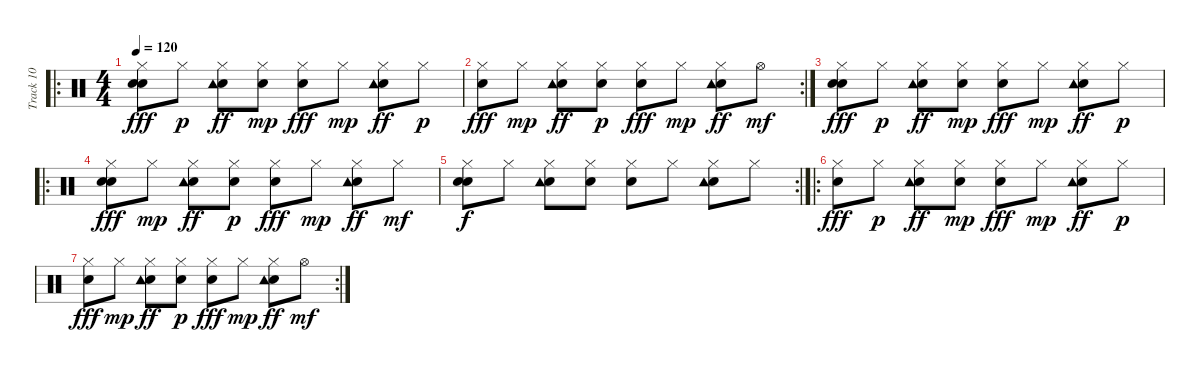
\track ("Track 10" "Track 10") {instrument percussion}
\staff {score}
\articulation defaults
\ro
\ts (4 4)
\tempo 120
\clef neutral
\ks c
("Snare (hit)" "Hi-Hat (closed)" "Snare (hit)").8{dy fff} "Hi-Hat (closed)".8{dy p} ("Snare (hit) 2" "Hi-Hat (closed)" "Tambourine (hit)").8{dy ff} ("Snare (hit)" "Hi-Hat (closed)").8{dy mp} ("Snare (hit)" "Hi-Hat (closed)").8{dy fff} "Hi-Hat (closed)".8{dy mp} ("Snare (hit) 2" "Hi-Hat (closed)" "Tambourine (hit)").8{dy ff} "Hi-Hat (closed)".8{dy p} |
\rc 2
("Snare (hit)" "Hi-Hat (closed)").8{dy fff} "Hi-Hat (closed)".8{dy mp} ("Snare (hit) 2" "Hi-Hat (closed)" "Tambourine (hit)").8{dy ff} ("Snare (hit)" "Hi-Hat (closed)").8{dy p} ("Snare (hit)" "Hi-Hat (closed)").8{dy fff} "Hi-Hat (closed)".8{dy mp} ("Hi-Hat (closed)" "Snare (hit) 2" "Tambourine (hit)").8{dy ff} "Hi-Hat (open)".8{dy mf} |
("Snare (hit)" "Hi-Hat (closed)" "Snare (hit)").8{dy fff} "Hi-Hat (closed)".8{dy p} ("Snare (hit) 2" "Hi-Hat (closed)" "Tambourine (hit)").8{dy ff} ("Snare (hit)" "Hi-Hat (closed)").8{dy mp} ("Snare (hit)" "Hi-Hat (closed)").8{dy fff} "Hi-Hat (closed)".8{dy mp} ("Snare (hit) 2" "Hi-Hat (closed)" "Tambourine (hit)").8{dy ff} "Hi-Hat (closed)".8{dy p} |
\ro
("Snare (hit)" "Hi-Hat (closed)" "Snare (hit)").8{dy fff} "Hi-Hat (closed)".8{dy mp} ("Snare (hit) 2" "Hi-Hat (closed)" "Tambourine (hit)").8{dy ff} ("Snare (hit)" "Hi-Hat (closed)").8{dy p} ("Snare (hit)" "Hi-Hat (closed)").8{dy fff} "Hi-Hat (closed)".8{dy mp} ("Snare (hit) 2" "Hi-Hat (closed)" "Tambourine (hit)").8{dy ff} "Hi-Hat (closed)".8{dy mf} |
\rc 2
("Snare (hit)" "Hi-Hat (closed)" "Snare (hit)").8{dy f} "Hi-Hat (closed)".8 ("Snare (hit) 2" "Hi-Hat (closed)" "Tambourine (hit)").8 ("Snare (hit)" "Hi-Hat (closed)").8 ("Snare (hit)" "Hi-Hat (closed)").8 "Hi-Hat (closed)".8 ("Snare (hit) 2" "Hi-Hat (closed)" "Tambourine (hit)").8 "Hi-Hat (closed)".8 |
\ro
("Hi-Hat (closed)" "Snare (hit)").8{dy fff} "Hi-Hat (closed)".8{dy p} ("Snare (hit) 2" "Hi-Hat (closed)" "Tambourine (hit)").8{dy ff} ("Snare (hit)" "Hi-Hat (closed)").8{dy mp} ("Snare (hit)" "Hi-Hat (closed)").8{dy fff} "Hi-Hat (closed)".8{dy mp} ("Snare (hit) 2" "Hi-Hat (closed)" "Tambourine (hit)").8{dy ff} "Hi-Hat (closed)".8{dy p} |
\rc 2
("Snare (hit)" "Hi-Hat (closed)").8{dy fff} "Hi-Hat (closed)".8{dy mp} ("Snare (hit) 2" "Hi-Hat (closed)" "Tambourine (hit)").8{dy ff} ("Snare (hit)" "Hi-Hat (closed)").8{dy p} ("Snare (hit)" "Hi-Hat (closed)").8{dy fff} "Hi-Hat (closed)".8{dy mp} ("Hi-Hat (closed)" "Snare (hit) 2" "Tambourine (hit)").8{dy ff} "Hi-Hat (open)".8{dy mf}
